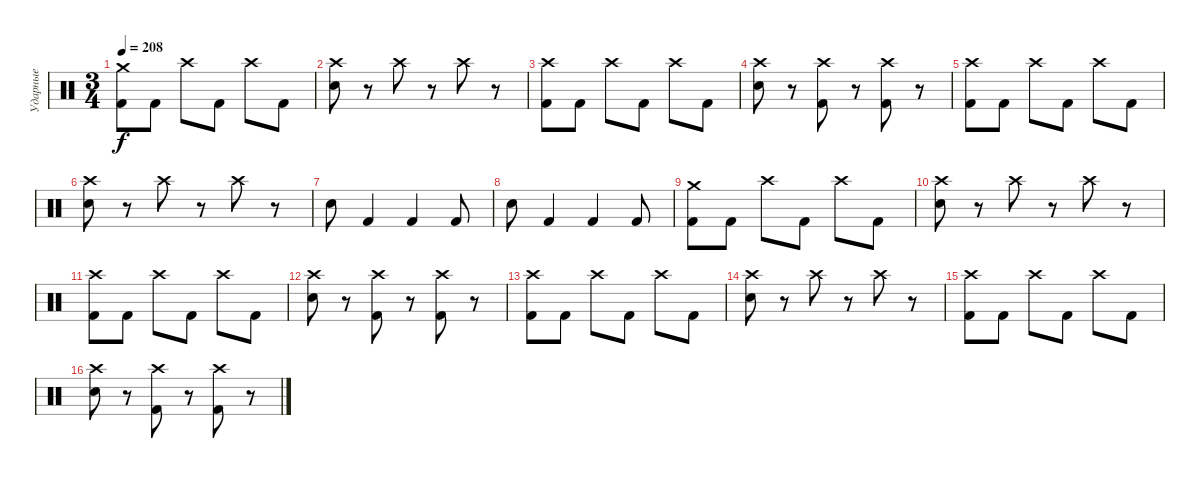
\track ("Ударные" "Ударные") {instrument percussion}
\staff {score}
\articulation defaults
\ts (3 4)
\tempo 208
\clef neutral
\ks c
("Crash medium (hit)" "Kick (hit) 2").8{dy f} "Kick (hit) 2".8 "Crash high (hit)".8 "Kick (hit) 2".8 "Crash high (hit)".8 "Kick (hit) 2".8 |
("Crash high (hit)" "Electric Snare (hit)").8 r.8 "Crash high (hit)".8 r.8 "Crash high (hit)".8 r.8 |
("Crash high (hit)" "Kick (hit) 2").8 "Kick (hit) 2".8 "Crash high (hit)".8 "Kick (hit) 2".8 "Crash high (hit)".8 "Kick (hit) 2".8 |
("Crash high (hit)" "Electric Snare (hit)").8 r.8 ("Crash high (hit)" "Kick (hit) 2").8 r.8 ("Crash high (hit)" "Kick (hit) 2").8 r.8 |
("Crash high (hit)" "Kick (hit) 2").8 "Kick (hit) 2".8 "Crash high (hit)".8 "Kick (hit) 2".8 "Crash high (hit)".8 "Kick (hit) 2".8 |
("Crash high (hit)" "Electric Snare (hit)").8 r.8 "Crash high (hit)".8 r.8 "Crash high (hit)".8 r.8 |
"Electric Snare (hit)".8 "Kick (hit) 2".4 "Kick (hit) 2".4 "Kick (hit) 2".8 |
"Electric Snare (hit)".8 "Kick (hit) 2".4 "Kick (hit) 2".4 "Kick (hit) 2".8 |
("Crash medium (hit)" "Kick (hit) 2").8 "Kick (hit) 2".8 "Crash high (hit)".8 "Kick (hit) 2".8 "Crash high (hit)".8 "Kick (hit) 2".8 |
("Crash high (hit)" "Electric Snare (hit)").8 r.8 "Crash high (hit)".8 r.8 "Crash high (hit)".8 r.8 |
("Crash high (hit)" "Kick (hit) 2").8 "Kick (hit) 2".8 "Crash high (hit)".8 "Kick (hit) 2".8 "Crash high (hit)".8 "Kick (hit) 2".8 |
("Crash high (hit)" "Electric Snare (hit)").8 r.8 ("Crash high (hit)" "Kick (hit) 2").8 r.8 ("Crash high (hit)" "Kick (hit) 2").8 r.8 |
("Crash high (hit)" "Kick (hit) 2").8 "Kick (hit) 2".8 "Crash high (hit)".8 "Kick (hit) 2".8 "Crash high (hit)".8 "Kick (hit) 2".8 |
("Crash high (hit)" "Electric Snare (hit)").8 r.8 "Crash high (hit)".8 r.8 "Crash high (hit)".8 r.8 |
("Crash high (hit)" "Kick (hit) 2").8 "Kick (hit) 2".8 "Crash high (hit)".8 "Kick (hit) 2".8 "Crash high (hit)".8 "Kick (hit) 2".8 |
("Crash high (hit)" "Electric Snare (hit)").8 r.8 ("Crash high (hit)" "Kick (hit) 2").8 r.8 ("Crash high (hit)" "Kick (hit) 2").8 r.8
